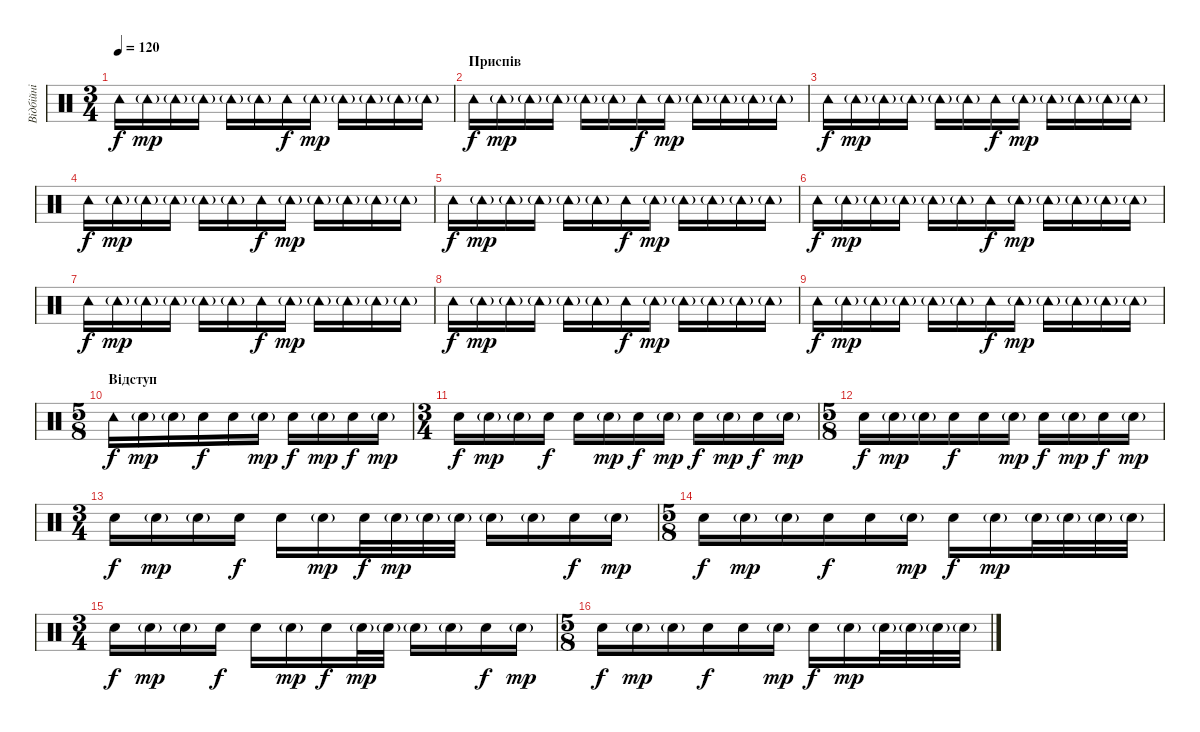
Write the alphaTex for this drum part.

\track ("Вiдбiйнi" "Вiдбiйнi") {instrument percussion}
\staff {score}
\articulation defaults
\ts (3 4)
\tempo 120
\clef neutral
\ks c "Tambourine (hit)".16{dy f} "Tambourine (hit)"{g}.16{dy mp} "Tambourine (hit)"{g}.16 "Tambourine (hit)"{g}.16 "Tambourine (hit)"{g}.16 "Tambourine (hit)"{g}.16 "Tambourine (hit)".16{dy f} "Tambourine (hit)"{g}.16{dy mp} "Tambourine (hit)"{g}.16 "Tambourine (hit)"{g}.16 "Tambourine (hit)"{g}.16 "Tambourine (hit)"{g}.16
|
\section ("" "Приспів")
"Tambourine (hit)".16{dy f} "Tambourine (hit)"{g}.16{dy mp} "Tambourine (hit)"{g}.16 "Tambourine (hit)"{g}.16 "Tambourine (hit)"{g}.16 "Tambourine (hit)"{g}.16 "Tambourine (hit)".16{dy f} "Tambourine (hit)"{g}.16{dy mp} "Tambourine (hit)"{g}.16 "Tambourine (hit)"{g}.16 "Tambourine (hit)"{g}.16 "Tambourine (hit)"{g}.16 |
"Tambourine (hit)".16{dy f} "Tambourine (hit)"{g}.16{dy mp} "Tambourine (hit)"{g}.16 "Tambourine (hit)"{g}.16 "Tambourine (hit)"{g}.16 "Tambourine (hit)"{g}.16 "Tambourine (hit)".16{dy f} "Tambourine (hit)"{g}.16{dy mp} "Tambourine (hit)"{g}.16 "Tambourine (hit)"{g}.16 "Tambourine (hit)"{g}.16 "Tambourine (hit)"{g}.16 |
"Tambourine (hit)".16{dy f} "Tambourine (hit)"{g}.16{dy mp} "Tambourine (hit)"{g}.16 "Tambourine (hit)"{g}.16 "Tambourine (hit)"{g}.16 "Tambourine (hit)"{g}.16 "Tambourine (hit)".16{dy f} "Tambourine (hit)"{g}.16{dy mp} "Tambourine (hit)"{g}.16 "Tambourine (hit)"{g}.16 "Tambourine (hit)"{g}.16 "Tambourine (hit)"{g}.16 |
"Tambourine (hit)".16{dy f} "Tambourine (hit)"{g}.16{dy mp} "Tambourine (hit)"{g}.16 "Tambourine (hit)"{g}.16 "Tambourine (hit)"{g}.16 "Tambourine (hit)"{g}.16 "Tambourine (hit)".16{dy f} "Tambourine (hit)"{g}.16{dy mp} "Tambourine (hit)"{g}.16 "Tambourine (hit)"{g}.16 "Tambourine (hit)"{g}.16 "Tambourine (hit)"{g}.16 |
"Tambourine (hit)".16{dy f} "Tambourine (hit)"{g}.16{dy mp} "Tambourine (hit)"{g}.16 "Tambourine (hit)"{g}.16 "Tambourine (hit)"{g}.16 "Tambourine (hit)"{g}.16 "Tambourine (hit)".16{dy f} "Tambourine (hit)"{g}.16{dy mp} "Tambourine (hit)"{g}.16 "Tambourine (hit)"{g}.16 "Tambourine (hit)"{g}.16 "Tambourine (hit)"{g}.16 |
"Tambourine (hit)".16{dy f} "Tambourine (hit)"{g}.16{dy mp} "Tambourine (hit)"{g}.16 "Tambourine (hit)"{g}.16 "Tambourine (hit)"{g}.16 "Tambourine (hit)"{g}.16 "Tambourine (hit)".16{dy f} "Tambourine (hit)"{g}.16{dy mp} "Tambourine (hit)"{g}.16 "Tambourine (hit)"{g}.16 "Tambourine (hit)"{g}.16 "Tambourine (hit)"{g}.16 |
"Tambourine (hit)".16{dy f} "Tambourine (hit)"{g}.16{dy mp} "Tambourine (hit)"{g}.16 "Tambourine (hit)"{g}.16 "Tambourine (hit)"{g}.16 "Tambourine (hit)"{g}.16 "Tambourine (hit)".16{dy f} "Tambourine (hit)"{g}.16{dy mp} "Tambourine (hit)"{g}.16 "Tambourine (hit)"{g}.16 "Tambourine (hit)"{g}.16 "Tambourine (hit)"{g}.16 |
"Tambourine (hit)".16{dy f} "Tambourine (hit)"{g}.16{dy mp} "Tambourine (hit)"{g}.16 "Tambourine (hit)"{g}.16 "Tambourine (hit)"{g}.16 "Tambourine (hit)"{g}.16 "Tambourine (hit)".16{dy f} "Tambourine (hit)"{g}.16{dy mp} "Tambourine (hit)"{g}.16 "Tambourine (hit)"{g}.16 "Tambourine (hit)"{g}.16 "Tambourine (hit)"{g}.16 |
\ts (5 8)
\section ("" "Відступ")
"Tambourine (hit)".16{dy f} "Electric Snare (hit)"{g}.16{dy mp volume 10} "Electric Snare (hit)"{g}.16 "Electric Snare (hit)".16{dy f} "Electric Snare (hit)".16 "Electric Snare (hit)"{g}.16{dy mp} "Electric Snare (hit)".16{dy f} "Electric Snare (hit)"{g}.16{dy mp} "Electric Snare (hit)".16{dy f} "Electric Snare (hit)"{g}.16{dy mp} |
\ts (3 4)
"Electric Snare (hit)".16{dy f} "Electric Snare (hit)"{g}.16{dy mp} "Electric Snare (hit)"{g}.16 "Electric Snare (hit)".16{dy f} "Electric Snare (hit)".16 "Electric Snare (hit)"{g}.16{dy mp} "Electric Snare (hit)".16{dy f} "Electric Snare (hit)"{g}.16{dy mp} "Electric Snare (hit)".16{dy f} "Electric Snare (hit)"{g}.16{dy mp} "Electric Snare (hit)".16{dy f} "Electric Snare (hit)"{g}.16{dy mp} |
\ts (5 8)
"Electric Snare (hit)".16{dy f} "Electric Snare (hit)"{g}.16{dy mp} "Electric Snare (hit)"{g}.16 "Electric Snare (hit)".16{dy f} "Electric Snare (hit)".16 "Electric Snare (hit)"{g}.16{dy mp} "Electric Snare (hit)".16{dy f} "Electric Snare (hit)"{g}.16{dy mp} "Electric Snare (hit)".16{dy f} "Electric Snare (hit)"{g}.16{dy mp} |
\ts (3 4)
"Electric Snare (hit)".16{dy f} "Electric Snare (hit)"{g}.16{dy mp} "Electric Snare (hit)"{g}.16 "Electric Snare (hit)".16{dy f} "Electric Snare (hit)".16 "Electric Snare (hit)"{g}.16{dy mp} "Electric Snare (hit)".32{dy f} "Electric Snare (hit)"{g}.32{dy mp} "Electric Snare (hit)"{g}.32 "Electric Snare (hit)"{g}.32 "Electric Snare (hit)"{g}.16 "Electric Snare (hit)"{g}.16 "Electric Snare (hit)".16{dy f} "Electric Snare (hit)"{g}.16{dy mp} |
\ts (5 8)
"Electric Snare (hit)".16{dy f volume 10} "Electric Snare (hit)"{g}.16{dy mp} "Electric Snare (hit)"{g}.16 "Electric Snare (hit)".16{dy f} "Electric Snare (hit)".16 "Electric Snare (hit)"{g}.16{dy mp} "Electric Snare (hit)".16{dy f} "Electric Snare (hit)"{g}.16{dy mp} "Electric Snare (hit)"{g}.32 "Electric Snare (hit)"{g}.32 "Electric Snare (hit)"{g}.32 "Electric Snare (hit)"{g}.32 |
\ts (3 4)
"Electric Snare (hit)".16{dy f} "Electric Snare (hit)"{g}.16{dy mp} "Electric Snare (hit)"{g}.16 "Electric Snare (hit)".16{dy f} "Electric Snare (hit)".16 "Electric Snare (hit)"{g}.16{dy mp} "Electric Snare (hit)".16{dy f} "Electric Snare (hit)"{g}.32{dy mp} "Electric Snare (hit)"{g}.32 "Electric Snare (hit)"{g}.16 "Electric Snare (hit)"{g}.16 "Electric Snare (hit)".16{dy f} "Electric Snare (hit)"{g}.16{dy mp} |
\ts (5 8)
"Electric Snare (hit)".16{dy f volume 10} "Electric Snare (hit)"{g}.16{dy mp} "Electric Snare (hit)"{g}.16 "Electric Snare (hit)".16{dy f} "Electric Snare (hit)".16 "Electric Snare (hit)"{g}.16{dy mp} "Electric Snare (hit)".16{dy f} "Electric Snare (hit)"{g}.16{dy mp} "Electric Snare (hit)"{g}.32 "Electric Snare (hit)"{g}.32 "Electric Snare (hit)"{g}.32 "Electric Snare (hit)"{g}.32
